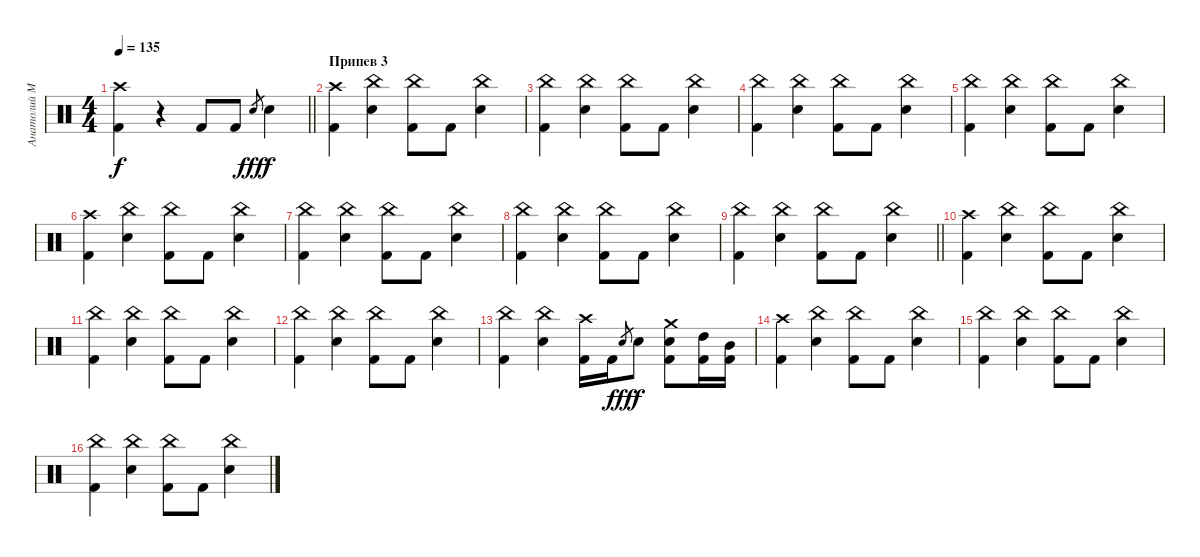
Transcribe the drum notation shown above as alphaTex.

\track ("Анатолий Малиновский" "Анатолий М") {instrument percussion}
\staff {score}
\articulation defaults
\ts (4 4)
\tempo 135
\clef neutral
\barLineRight lightlight
\ks c
("Crash high (hit)" "Kick (hit) 2").4{dy f} r.4 "Kick (hit) 2".8 "Kick (hit) 2".8 "Electric Snare (hit)"{sl}.8{gr dy fff} "Electric Snare (hit)".4{dy f} |
\section ("" "Припев 3")
("Crash high (hit)" "Kick (hit) 2").4 ("China (hit)" "Electric Snare (hit)").4 ("China (hit)" "Kick (hit) 2").8 "Kick (hit) 2".8 ("China (hit)" "Electric Snare (hit)").4 |
("China (hit)" "Kick (hit) 2").4 ("China (hit)" "Electric Snare (hit)").4 ("China (hit)" "Kick (hit) 2").8 "Kick (hit) 2".8 ("China (hit)" "Electric Snare (hit)").4 |
("China (hit)" "Kick (hit) 2").4 ("China (hit)" "Electric Snare (hit)").4 ("China (hit)" "Kick (hit) 2").8 "Kick (hit) 2".8 ("China (hit)" "Electric Snare (hit)").4 |
("China (hit)" "Kick (hit) 2").4 ("China (hit)" "Electric Snare (hit)").4 ("China (hit)" "Kick (hit) 2").8 "Kick (hit) 2".8 ("China (hit)" "Electric Snare (hit)").4 |
("Crash high (hit)" "Kick (hit) 2").4 ("China (hit)" "Electric Snare (hit)").4 ("China (hit)" "Kick (hit) 2").8 "Kick (hit) 2".8 ("China (hit)" "Electric Snare (hit)").4 |
("China (hit)" "Kick (hit) 2").4 ("China (hit)" "Electric Snare (hit)").4 ("China (hit)" "Kick (hit) 2").8 "Kick (hit) 2".8 ("China (hit)" "Electric Snare (hit)").4 |
("China (hit)" "Kick (hit) 2").4 ("China (hit)" "Electric Snare (hit)").4 ("China (hit)" "Kick (hit) 2").8 "Kick (hit) 2".8 ("China (hit)" "Electric Snare (hit)").4 |
\barLineRight lightlight
("China (hit)" "Kick (hit) 2").4 ("China (hit)" "Electric Snare (hit)").4 ("China (hit)" "Kick (hit) 2").8 "Kick (hit) 2".8 ("China (hit)" "Electric Snare (hit)").4 |
("Crash high (hit)" "Kick (hit) 2").4 ("China (hit)" "Electric Snare (hit)").4 ("China (hit)" "Kick (hit) 2").8 "Kick (hit) 2".8 ("China (hit)" "Electric Snare (hit)").4 |
("China (hit)" "Kick (hit) 2").4 ("China (hit)" "Electric Snare (hit)").4 ("China (hit)" "Kick (hit) 2").8 "Kick (hit) 2".8 ("China (hit)" "Electric Snare (hit)").4 |
("China (hit)" "Kick (hit) 2").4 ("China (hit)" "Electric Snare (hit)").4 ("China (hit)" "Kick (hit) 2").8 "Kick (hit) 2".8 ("China (hit)" "Electric Snare (hit)").4 |
("China (hit)" "Kick (hit) 2").4 ("China (hit)" "Electric Snare (hit)").4 ("Crash high (hit)" "Kick (hit) 2").16 "Kick (hit) 2".16 "Electric Snare (hit)".8{gr dy fff} "Electric Snare (hit)".8{dy f} ("Crash medium (hit)" "Electric Snare (hit)" "Kick (hit) 2").8 ("High Tom (hit)" "Kick (hit) 2").16 ("Mid Tom (hit)" "Kick (hit) 2").16 |
("Crash high (hit)" "Kick (hit) 2").4 ("China (hit)" "Electric Snare (hit)").4 ("China (hit)" "Kick (hit) 2").8 "Kick (hit) 2".8 ("China (hit)" "Electric Snare (hit)").4 |
("China (hit)" "Kick (hit) 2").4 ("China (hit)" "Electric Snare (hit)").4 ("China (hit)" "Kick (hit) 2").8 "Kick (hit) 2".8 ("China (hit)" "Electric Snare (hit)").4 |
("China (hit)" "Kick (hit) 2").4 ("China (hit)" "Electric Snare (hit)").4 ("China (hit)" "Kick (hit) 2").8 "Kick (hit) 2".8 ("China (hit)" "Electric Snare (hit)").4
